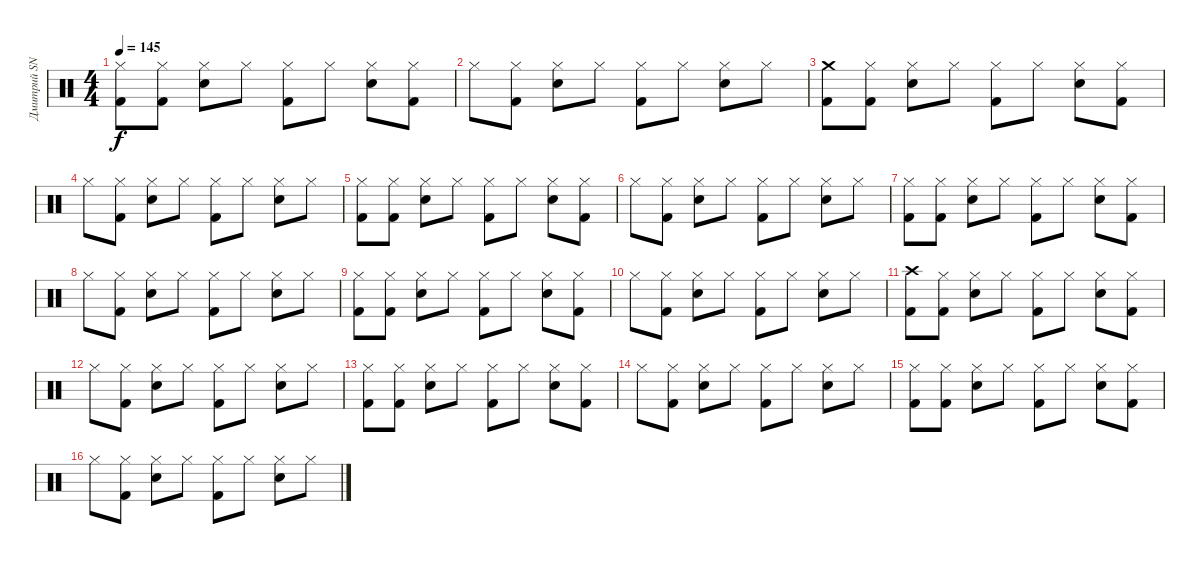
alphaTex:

\track ("Дмитрий SNAKE Хакимов" "Дмитрий SN") {instrument percussion}
\staff {score}
\articulation defaults
\ts (4 4)
\tempo 145
\clef neutral
\ks c
("Hi-Hat (closed)" "Kick (hit) 2").8{dy f} ("Hi-Hat (closed)" "Kick (hit) 2").8 ("Hi-Hat (closed)" "Snare (hit) 2").8 "Hi-Hat (closed)".8 ("Hi-Hat (closed)" "Kick (hit) 2").8 "Hi-Hat (closed)".8 ("Hi-Hat (closed)" "Snare (hit) 2").8 ("Hi-Hat (closed)" "Kick (hit) 2").8 |
"Hi-Hat (closed)".8 ("Hi-Hat (closed)" "Kick (hit) 2").8 ("Hi-Hat (closed)" "Snare (hit) 2").8 "Hi-Hat (closed)".8 ("Hi-Hat (closed)" "Kick (hit) 2").8 "Hi-Hat (closed)".8 ("Hi-Hat (closed)" "Snare (hit) 2").8 "Hi-Hat (closed)".8 |
("Crash medium (hit)" "Kick (hit) 2").8 ("Hi-Hat (closed)" "Kick (hit) 2").8 ("Hi-Hat (closed)" "Snare (hit) 2").8 "Hi-Hat (closed)".8 ("Hi-Hat (closed)" "Kick (hit) 2").8 "Hi-Hat (closed)".8 ("Hi-Hat (closed)" "Snare (hit) 2").8 ("Hi-Hat (closed)" "Kick (hit) 2").8 |
"Hi-Hat (closed)".8 ("Hi-Hat (closed)" "Kick (hit) 2").8 ("Hi-Hat (closed)" "Snare (hit) 2").8 "Hi-Hat (closed)".8 ("Hi-Hat (closed)" "Kick (hit) 2").8 "Hi-Hat (closed)".8 ("Hi-Hat (closed)" "Snare (hit) 2").8 "Hi-Hat (closed)".8 |
("Hi-Hat (closed)" "Kick (hit) 2").8 ("Hi-Hat (closed)" "Kick (hit) 2").8 ("Hi-Hat (closed)" "Snare (hit) 2").8 "Hi-Hat (closed)".8 ("Hi-Hat (closed)" "Kick (hit) 2").8 "Hi-Hat (closed)".8 ("Hi-Hat (closed)" "Snare (hit) 2").8 ("Hi-Hat (closed)" "Kick (hit) 2").8 |
"Hi-Hat (closed)".8 ("Hi-Hat (closed)" "Kick (hit) 2").8 ("Hi-Hat (closed)" "Snare (hit) 2").8 "Hi-Hat (closed)".8 ("Hi-Hat (closed)" "Kick (hit) 2").8 "Hi-Hat (closed)".8 ("Hi-Hat (closed)" "Snare (hit) 2").8 "Hi-Hat (closed)".8 |
("Hi-Hat (closed)" "Kick (hit) 2").8 ("Hi-Hat (closed)" "Kick (hit) 2").8 ("Hi-Hat (closed)" "Snare (hit) 2").8 "Hi-Hat (closed)".8 ("Hi-Hat (closed)" "Kick (hit) 2").8 "Hi-Hat (closed)".8 ("Hi-Hat (closed)" "Snare (hit) 2").8 ("Hi-Hat (closed)" "Kick (hit) 2").8 |
"Hi-Hat (closed)".8 ("Hi-Hat (closed)" "Kick (hit) 2").8 ("Hi-Hat (closed)" "Snare (hit) 2").8 "Hi-Hat (closed)".8 ("Hi-Hat (closed)" "Kick (hit) 2").8 "Hi-Hat (closed)".8 ("Hi-Hat (closed)" "Snare (hit) 2").8 "Hi-Hat (closed)".8 |
("Hi-Hat (closed)" "Kick (hit) 2").8 ("Hi-Hat (closed)" "Kick (hit) 2").8 ("Hi-Hat (closed)" "Snare (hit) 2").8 "Hi-Hat (closed)".8 ("Hi-Hat (closed)" "Kick (hit) 2").8 "Hi-Hat (closed)".8 ("Hi-Hat (closed)" "Snare (hit) 2").8 ("Hi-Hat (closed)" "Kick (hit) 2").8 |
"Hi-Hat (closed)".8 ("Hi-Hat (closed)" "Kick (hit) 2").8 ("Hi-Hat (closed)" "Snare (hit) 2").8 "Hi-Hat (closed)".8 ("Hi-Hat (closed)" "Kick (hit) 2").8 "Hi-Hat (closed)".8 ("Hi-Hat (closed)" "Snare (hit) 2").8 "Hi-Hat (closed)".8 |
("Crash high (hit)" "Kick (hit) 2").8 ("Hi-Hat (closed)" "Kick (hit) 2").8 ("Hi-Hat (closed)" "Snare (hit) 2").8 "Hi-Hat (closed)".8 ("Hi-Hat (closed)" "Kick (hit) 2").8 "Hi-Hat (closed)".8 ("Hi-Hat (closed)" "Snare (hit) 2").8 ("Hi-Hat (closed)" "Kick (hit) 2").8 |
"Hi-Hat (closed)".8 ("Hi-Hat (closed)" "Kick (hit) 2").8 ("Hi-Hat (closed)" "Snare (hit) 2").8 "Hi-Hat (closed)".8 ("Hi-Hat (closed)" "Kick (hit) 2").8 "Hi-Hat (closed)".8 ("Hi-Hat (closed)" "Snare (hit) 2").8 "Hi-Hat (closed)".8 |
("Hi-Hat (closed)" "Kick (hit) 2").8 ("Hi-Hat (closed)" "Kick (hit) 2").8 ("Hi-Hat (closed)" "Snare (hit) 2").8 "Hi-Hat (closed)".8 ("Hi-Hat (closed)" "Kick (hit) 2").8 "Hi-Hat (closed)".8 ("Hi-Hat (closed)" "Snare (hit) 2").8 ("Hi-Hat (closed)" "Kick (hit) 2").8 |
"Hi-Hat (closed)".8 ("Hi-Hat (closed)" "Kick (hit) 2").8 ("Hi-Hat (closed)" "Snare (hit) 2").8 "Hi-Hat (closed)".8 ("Hi-Hat (closed)" "Kick (hit) 2").8 "Hi-Hat (closed)".8 ("Hi-Hat (closed)" "Snare (hit) 2").8 "Hi-Hat (closed)".8 |
("Hi-Hat (closed)" "Kick (hit) 2").8 ("Hi-Hat (closed)" "Kick (hit) 2").8 ("Hi-Hat (closed)" "Snare (hit) 2").8 "Hi-Hat (closed)".8 ("Hi-Hat (closed)" "Kick (hit) 2").8 "Hi-Hat (closed)".8 ("Hi-Hat (closed)" "Snare (hit) 2").8 ("Hi-Hat (closed)" "Kick (hit) 2").8 |
"Hi-Hat (closed)".8 ("Hi-Hat (closed)" "Kick (hit) 2").8 ("Hi-Hat (closed)" "Snare (hit) 2").8 "Hi-Hat (closed)".8 ("Hi-Hat (closed)" "Kick (hit) 2").8 "Hi-Hat (closed)".8 ("Hi-Hat (closed)" "Snare (hit) 2").8 "Hi-Hat (closed)".8
